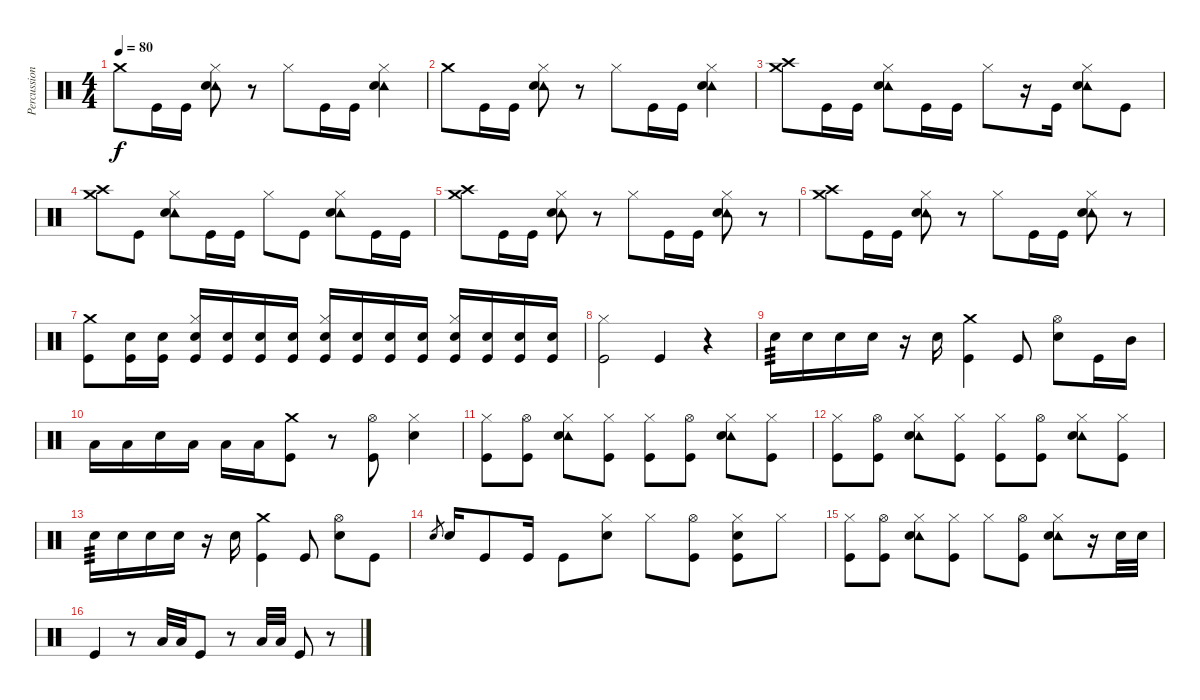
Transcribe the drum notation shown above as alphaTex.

\track ("Percussion" "Percussion") {instrument percussion}
\staff {score}
\articulation defaults
\ts (4 4)
\tempo 80
\clef neutral
\ks c "Crash medium (hit)".8{dy f} "Kick (hit)".16 "Kick (hit)".16
("Hi-Hat (closed)" "Tambourine (hit)" "Electric Snare (hit)").8 r.8 "Hi-Hat (closed)".8 "Kick (hit)".16 "Kick (hit)".16 ("Hi-Hat (closed)" "Tambourine (hit)" "Electric Snare (hit)").4 |
"Crash medium (hit)".8 "Kick (hit)".16 "Kick (hit)".16 ("Hi-Hat (closed)" "Tambourine (hit)" "Electric Snare (hit)").8 r.8 "Hi-Hat (closed)".8 "Kick (hit)".16 "Kick (hit)".16 ("Hi-Hat (closed)" "Tambourine (hit)" "Electric Snare (hit)").4 |
("Crash medium (hit)" "Crash high (hit)").8 "Kick (hit)".16 "Kick (hit)".16 ("Hi-Hat (closed)" "Tambourine (hit)" "Electric Snare (hit)").8 "Kick (hit)".16 "Kick (hit)".16 "Hi-Hat (closed)".8 r.16 "Kick (hit)".16 ("Hi-Hat (closed)" "Tambourine (hit)" "Electric Snare (hit)").8 "Kick (hit)".8 |
("Crash medium (hit)" "Crash high (hit)").8 "Kick (hit)".8 ("Hi-Hat (closed)" "Tambourine (hit)" "Electric Snare (hit)").8 "Kick (hit)".16 "Kick (hit)".16 "Hi-Hat (closed)".8 "Kick (hit)".8 ("Hi-Hat (closed)" "Tambourine (hit)" "Electric Snare (hit)").8 "Kick (hit)".16 "Kick (hit)".16 |
("Crash medium (hit)" "Crash high (hit)").8 "Kick (hit)".16 "Kick (hit)".16 ("Hi-Hat (closed)" "Tambourine (hit)" "Electric Snare (hit)").8 r.8 "Hi-Hat (closed)".8 "Kick (hit)".16 "Kick (hit)".16 ("Hi-Hat (closed)" "Tambourine (hit)" "Electric Snare (hit)").8 r.8 |
("Crash medium (hit)" "Crash high (hit)").8 "Kick (hit)".16 "Kick (hit)".16 ("Hi-Hat (closed)" "Tambourine (hit)" "Electric Snare (hit)").8 r.8 "Hi-Hat (closed)".8 "Kick (hit)".16 "Kick (hit)".16 ("Hi-Hat (closed)" "Tambourine (hit)" "Electric Snare (hit)").8 r.8 |
("Crash medium (hit)" "Kick (hit)").8 ("Electric Snare (hit)" "Kick (hit)").16 ("Electric Snare (hit)" "Kick (hit)").16 ("Hi-Hat (closed)" "Electric Snare (hit)" "Kick (hit)").16 ("Electric Snare (hit)" "Kick (hit)").16 ("Electric Snare (hit)" "Kick (hit)").16 ("Electric Snare (hit)" "Kick (hit)").16 ("Hi-Hat (closed)" "Electric Snare (hit)" "Kick (hit)").16 ("Electric Snare (hit)" "Kick (hit)").16 ("Electric Snare (hit)" "Kick (hit)").16 ("Electric Snare (hit)" "Kick (hit)").16 ("Hi-Hat (closed)" "Electric Snare (hit)" "Kick (hit)").16 ("Electric Snare (hit)" "Kick (hit)").16 ("Electric Snare (hit)" "Kick (hit)").16 ("Electric Snare (hit)" "Kick (hit)").16 |
("Hi-Hat (closed)" "Kick (hit)").2 "Kick (hit)".4 r.4 |
"Electric Snare (hit)".16{tp 3} "Electric Snare (hit)".16 "Electric Snare (hit)".16 "Electric Snare (hit)".16 r.16 "Electric Snare (hit)".16 ("Crash medium (hit)" "Kick (hit)").4 "Kick (hit)".8 ("Hi-Hat (open)" "Electric Snare (hit)").8 "Kick (hit)".16 "Mid Tom (hit)".16 |
"Low Tom (hit)".16 "Low Tom (hit)".16 "Electric Snare (hit)".16 "Low Tom (hit)".16 "Low Floor Tom (hit)".16 "Low Floor Tom (hit)".16 ("Crash medium (hit)" "Kick (hit)").8 r.8 ("Hi-Hat (open)" "Kick (hit)").8 ("Hi-Hat (closed)" "Electric Snare (hit)").4 |
("Hi-Hat (closed)" "Kick (hit)").8 ("Hi-Hat (open)" "Kick (hit)").8 ("Hi-Hat (closed)" "Tambourine (hit)" "Electric Snare (hit)").8 ("Hi-Hat (closed)" "Kick (hit)").8 ("Hi-Hat (closed)" "Kick (hit)").8 ("Hi-Hat (open)" "Kick (hit)").8 ("Hi-Hat (closed)" "Tambourine (hit)" "Electric Snare (hit)").8 ("Hi-Hat (closed)" "Kick (hit)").8 |
("Hi-Hat (closed)" "Kick (hit)").8 ("Hi-Hat (open)" "Kick (hit)").8 ("Hi-Hat (closed)" "Tambourine (hit)" "Electric Snare (hit)").8 ("Hi-Hat (closed)" "Kick (hit)").8 ("Hi-Hat (closed)" "Kick (hit)").8 ("Hi-Hat (open)" "Kick (hit)").8 ("Hi-Hat (closed)" "Tambourine (hit)" "Electric Snare (hit)").8 ("Hi-Hat (closed)" "Kick (hit)").8 |
"Electric Snare (hit)".16{tp 3} "Electric Snare (hit)".16 "Electric Snare (hit)".16 "Electric Snare (hit)".16 r.16 "Electric Snare (hit)".16 ("Crash medium (hit)" "Kick (hit)").4 "Kick (hit)".8 ("Hi-Hat (open)" "Electric Snare (hit)").8 "Kick (hit)".8 |
"Electric Snare (hit)".8{gr} "Electric Snare (hit)".16 "Kick (hit)".8 "Kick (hit)".16 "Kick (hit)".8 ("Hi-Hat (closed)" "Electric Snare (hit)").8 "Hi-Hat (closed)".8 ("Hi-Hat (open)" "Kick (hit)").8 ("Hi-Hat (closed)" "Electric Snare (hit)" "Kick (hit)").8 "Hi-Hat (closed)".8 |
("Hi-Hat (closed)" "Kick (hit)").8 ("Hi-Hat (open)" "Kick (hit)").8 ("Hi-Hat (closed)" "Tambourine (hit)" "Electric Snare (hit)").8 ("Hi-Hat (closed)" "Kick (hit)").8 "Hi-Hat (closed)".8 ("Hi-Hat (open)" "Kick (hit)").8 ("Hi-Hat (closed)" "Tambourine (hit)" "Electric Snare (hit)").8 r.16 "Electric Snare (hit)".32 "Electric Snare (hit)".32 |
"Kick (hit)".4 r.8 "Low Tom (hit)".32 "Low Tom (hit)".32 "Kick (hit)".8 r.8 "Low Floor Tom (hit)".32 "Low Floor Tom (hit)".32 "Kick (hit)".8 r.8
